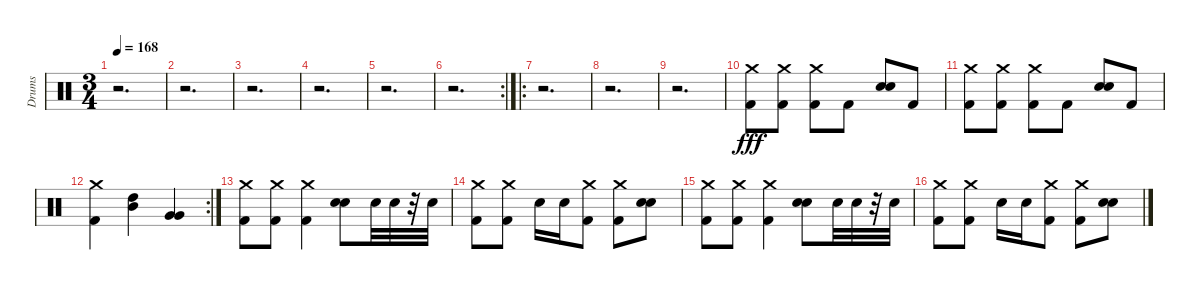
\track ("Drums" "Drums") {instrument percussion}
\staff {score}
\articulation defaults
\ts (3 4)
\tempo 168
\tempo 96
\tempo 168
\clef neutral
\ks c
r.2{d dy fff} |
r.2{d} |
r.2{d} |
r.2{d} |
r.2{d} |
\rc 2
r.2{d} |
\ro
r.2{d} |
r.2{d} |
r.2{d} |
("Kick (hit) 2" "Crash medium (hit)").8 ("Kick (hit) 2" "Crash medium (hit)").8 ("Crash medium (hit)" "Kick (hit) 2").8 "Kick (hit) 2".8 ("Snare (hit) 2" "Snare (hit) 2").8{bd 120} "Kick (hit) 2".8 |
("Kick (hit) 2" "Crash medium (hit)").8 ("Kick (hit) 2" "Crash medium (hit)").8 ("Crash medium (hit)" "Kick (hit) 2").8 "Kick (hit) 2".8 ("Snare (hit) 2" "Snare (hit) 2").8{bd 120} "Kick (hit) 2".8 |
\rc 2
("Kick (hit) 2" "Crash medium (hit)").4 ("High Tom (hit)" "Mid Tom (hit)").4 ("Very Low Tom (hit)" "Very Low Tom (hit)").4 |
("Kick (hit) 2" "Crash medium (hit)").8 ("Kick (hit) 2" "Crash medium (hit)").8 ("Kick (hit) 2" "Crash medium (hit)").4 ("Snare (hit) 2" "Snare (hit) 2").8{bd 120} "Snare (hit) 2".32 "Snare (hit) 2".32 r.32 "Snare (hit) 2".32 |
("Kick (hit) 2" "Crash medium (hit)").8 ("Kick (hit) 2" "Crash medium (hit)").8 "Snare (hit) 2".16 "Snare (hit) 2".16 ("Crash medium (hit)" "Kick (hit) 2").8 ("Crash medium (hit)" "Kick (hit) 2").8 ("Snare (hit) 2" "Snare (hit) 2").8{bd 120} |
("Kick (hit) 2" "Crash medium (hit)").8 ("Kick (hit) 2" "Crash medium (hit)").8 ("Kick (hit) 2" "Crash medium (hit)").4 ("Snare (hit) 2" "Snare (hit) 2").8{bd 120} "Snare (hit) 2".32 "Snare (hit) 2".32 r.32 "Snare (hit) 2".32 |
("Kick (hit) 2" "Crash medium (hit)").8 ("Kick (hit) 2" "Crash medium (hit)").8 "Snare (hit) 2".16 "Snare (hit) 2".16 ("Crash medium (hit)" "Kick (hit) 2").8 ("Crash medium (hit)" "Kick (hit) 2").8 ("Snare (hit) 2" "Snare (hit) 2").8{bd 120}
